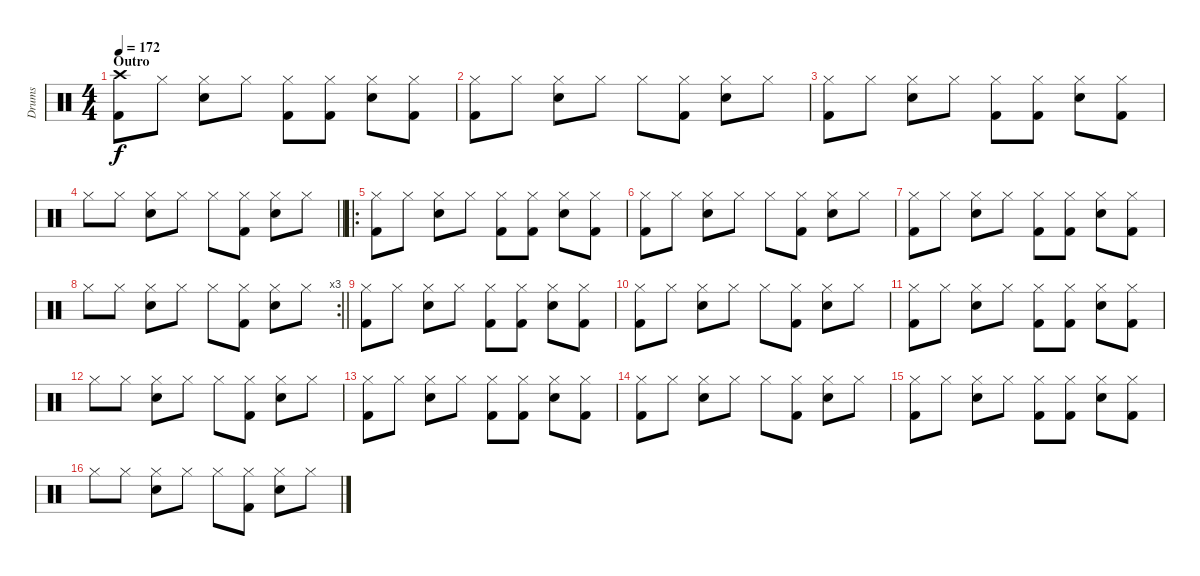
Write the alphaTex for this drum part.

\track ("Drums" "Drums") {instrument percussion}
\staff {score}
\articulation defaults
\ts (4 4)
\section ("" "Outro")
\tempo 172
\clef neutral
\ks c
("Crash high (hit)" "Kick (hit) 2").8{dy f} "Hi-Hat (closed)".8 ("Hi-Hat (closed)" "Electric Snare (hit)").8 "Hi-Hat (closed)".8 ("Hi-Hat (closed)" "Kick (hit) 2").8 ("Hi-Hat (closed)" "Kick (hit) 2").8 ("Hi-Hat (closed)" "Electric Snare (hit)").8 ("Hi-Hat (closed)" "Kick (hit) 2").8 |
("Hi-Hat (closed)" "Kick (hit) 2").8 "Hi-Hat (closed)".8 ("Hi-Hat (closed)" "Electric Snare (hit)").8 "Hi-Hat (closed)".8 "Hi-Hat (closed)".8 ("Hi-Hat (closed)" "Kick (hit) 2").8 ("Hi-Hat (closed)" "Electric Snare (hit)").8 "Hi-Hat (closed)".8 |
("Hi-Hat (closed)" "Kick (hit) 2").8 "Hi-Hat (closed)".8 ("Hi-Hat (closed)" "Electric Snare (hit)").8 "Hi-Hat (closed)".8 ("Hi-Hat (closed)" "Kick (hit) 2").8 ("Hi-Hat (closed)" "Kick (hit) 2").8 ("Hi-Hat (closed)" "Electric Snare (hit)").8 ("Hi-Hat (closed)" "Kick (hit) 2").8 |
\barLineRight lightlight "Hi-Hat (closed)".8 "Hi-Hat (closed)".8
("Hi-Hat (closed)" "Electric Snare (hit)").8 "Hi-Hat (closed)".8 "Hi-Hat (closed)".8 ("Hi-Hat (closed)" "Kick (hit) 2").8 ("Hi-Hat (closed)" "Electric Snare (hit)").8 "Hi-Hat (closed)".8 |
\ro
("Hi-Hat (closed)" "Kick (hit) 2").8 "Hi-Hat (closed)".8 ("Hi-Hat (closed)" "Electric Snare (hit)").8 "Hi-Hat (closed)".8 ("Hi-Hat (closed)" "Kick (hit) 2").8 ("Hi-Hat (closed)" "Kick (hit) 2").8 ("Hi-Hat (closed)" "Electric Snare (hit)").8 ("Hi-Hat (closed)" "Kick (hit) 2").8 |
("Hi-Hat (closed)" "Kick (hit) 2").8 "Hi-Hat (closed)".8 ("Hi-Hat (closed)" "Electric Snare (hit)").8 "Hi-Hat (closed)".8 "Hi-Hat (closed)".8 ("Hi-Hat (closed)" "Kick (hit) 2").8 ("Hi-Hat (closed)" "Electric Snare (hit)").8 "Hi-Hat (closed)".8 |
("Hi-Hat (closed)" "Kick (hit) 2").8 "Hi-Hat (closed)".8 ("Hi-Hat (closed)" "Electric Snare (hit)").8 "Hi-Hat (closed)".8 ("Hi-Hat (closed)" "Kick (hit) 2").8 ("Hi-Hat (closed)" "Kick (hit) 2").8 ("Hi-Hat (closed)" "Electric Snare (hit)").8 ("Hi-Hat (closed)" "Kick (hit) 2").8 |
\rc 3
\barLineRight lightlight "Hi-Hat (closed)".8 "Hi-Hat (closed)".8
("Hi-Hat (closed)" "Electric Snare (hit)").8 "Hi-Hat (closed)".8 "Hi-Hat (closed)".8 ("Hi-Hat (closed)" "Kick (hit) 2").8 ("Hi-Hat (closed)" "Electric Snare (hit)").8 "Hi-Hat (closed)".8 |
("Hi-Hat (closed)" "Kick (hit) 2").8{volume 8} "Hi-Hat (closed)".8 ("Hi-Hat (closed)" "Electric Snare (hit)").8 "Hi-Hat (closed)".8 ("Hi-Hat (closed)" "Kick (hit) 2").8 ("Hi-Hat (closed)" "Kick (hit) 2").8 ("Hi-Hat (closed)" "Electric Snare (hit)").8 ("Hi-Hat (closed)" "Kick (hit) 2").8 |
("Hi-Hat (closed)" "Kick (hit) 2").8 "Hi-Hat (closed)".8 ("Hi-Hat (closed)" "Electric Snare (hit)").8 "Hi-Hat (closed)".8 "Hi-Hat (closed)".8 ("Hi-Hat (closed)" "Kick (hit) 2").8 ("Hi-Hat (closed)" "Electric Snare (hit)").8 "Hi-Hat (closed)".8 |
("Hi-Hat (closed)" "Kick (hit) 2").8 "Hi-Hat (closed)".8 ("Hi-Hat (closed)" "Electric Snare (hit)").8 "Hi-Hat (closed)".8 ("Hi-Hat (closed)" "Kick (hit) 2").8 ("Hi-Hat (closed)" "Kick (hit) 2").8 ("Hi-Hat (closed)" "Electric Snare (hit)").8 ("Hi-Hat (closed)" "Kick (hit) 2").8 |
"Hi-Hat (closed)".8 "Hi-Hat (closed)".8 ("Hi-Hat (closed)" "Electric Snare (hit)").8 "Hi-Hat (closed)".8 "Hi-Hat (closed)".8 ("Hi-Hat (closed)" "Kick (hit) 2").8 ("Hi-Hat (closed)" "Electric Snare (hit)").8 "Hi-Hat (closed)".8 |
("Hi-Hat (closed)" "Kick (hit) 2").8{volume 4} "Hi-Hat (closed)".8 ("Hi-Hat (closed)" "Electric Snare (hit)").8 "Hi-Hat (closed)".8 ("Hi-Hat (closed)" "Kick (hit) 2").8 ("Hi-Hat (closed)" "Kick (hit) 2").8 ("Hi-Hat (closed)" "Electric Snare (hit)").8 ("Hi-Hat (closed)" "Kick (hit) 2").8 |
("Hi-Hat (closed)" "Kick (hit) 2").8 "Hi-Hat (closed)".8 ("Hi-Hat (closed)" "Electric Snare (hit)").8 "Hi-Hat (closed)".8 "Hi-Hat (closed)".8 ("Hi-Hat (closed)" "Kick (hit) 2").8 ("Hi-Hat (closed)" "Electric Snare (hit)").8 "Hi-Hat (closed)".8 |
("Hi-Hat (closed)" "Kick (hit) 2").8 "Hi-Hat (closed)".8 ("Hi-Hat (closed)" "Electric Snare (hit)").8 "Hi-Hat (closed)".8 ("Hi-Hat (closed)" "Kick (hit) 2").8 ("Hi-Hat (closed)" "Kick (hit) 2").8 ("Hi-Hat (closed)" "Electric Snare (hit)").8 ("Hi-Hat (closed)" "Kick (hit) 2").8 |
"Hi-Hat (closed)".8 "Hi-Hat (closed)".8 ("Hi-Hat (closed)" "Electric Snare (hit)").8 "Hi-Hat (closed)".8 "Hi-Hat (closed)".8 ("Hi-Hat (closed)" "Kick (hit) 2").8 ("Hi-Hat (closed)" "Electric Snare (hit)").8 "Hi-Hat (closed)".8
